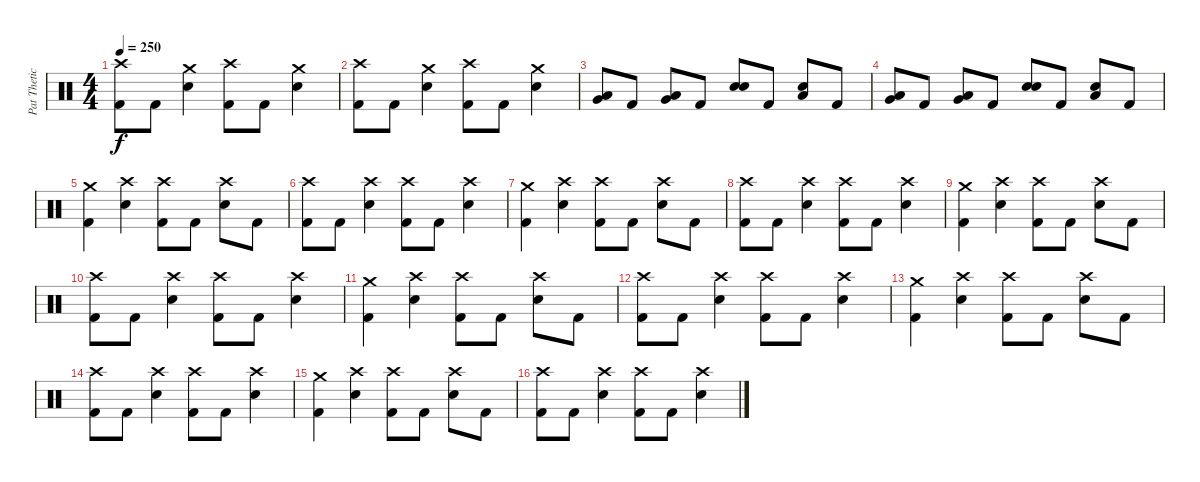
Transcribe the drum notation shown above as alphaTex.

\track ("Pat Thetic" "Pat Thetic") {instrument percussion}
\staff {score}
\articulation defaults
\ts (4 4)
\tempo 250
\clef neutral
\ks c
("Crash high (hit)" "Kick (hit) 2").8{dy f} "Kick (hit) 2".8 ("Crash medium (hit)" "Snare (hit) 2").4 ("Crash high (hit)" "Kick (hit) 2").8 "Kick (hit) 2".8 ("Crash medium (hit)" "Snare (hit) 2").4 |
("Crash high (hit)" "Kick (hit) 2").8 "Kick (hit) 2".8 ("Crash medium (hit)" "Snare (hit) 2").4 ("Crash high (hit)" "Kick (hit) 2").8 "Kick (hit) 2".8 ("Crash medium (hit)" "Snare (hit) 2").4 |
("Low Tom (hit)" "Very Low Tom (hit)").8 "Kick (hit) 2".8 ("Low Tom (hit)" "Very Low Tom (hit)").8 "Kick (hit) 2".8 ("Snare (hit) 2" "Snare (hit) 2").8 "Kick (hit) 2".8 ("Low Tom (hit)" "Snare (hit) 2").8 "Kick (hit) 2".8 |
("Low Tom (hit)" "Very Low Tom (hit)").8 "Kick (hit) 2".8 ("Low Tom (hit)" "Very Low Tom (hit)").8 "Kick (hit) 2".8 ("Snare (hit) 2" "Snare (hit) 2").8 "Kick (hit) 2".8 ("Low Tom (hit)" "Snare (hit) 2").8 "Kick (hit) 2".8 |
("Crash medium (hit)" "Kick (hit) 2").4 ("Crash high (hit)" "Snare (hit) 2").4 ("Crash high (hit)" "Kick (hit) 2").8 "Kick (hit) 2".8 ("Crash high (hit)" "Snare (hit) 2").8 "Kick (hit) 2".8 |
("Crash high (hit)" "Kick (hit) 2").8 "Kick (hit) 2".8 ("Crash high (hit)" "Snare (hit) 2").4 ("Crash high (hit)" "Kick (hit) 2").8 "Kick (hit) 2".8 ("Crash high (hit)" "Snare (hit) 2").4 |
("Crash medium (hit)" "Kick (hit) 2").4 ("Crash high (hit)" "Snare (hit) 2").4 ("Crash high (hit)" "Kick (hit) 2").8 "Kick (hit) 2".8 ("Crash high (hit)" "Snare (hit) 2").8 "Kick (hit) 2".8 |
("Crash high (hit)" "Kick (hit) 2").8 "Kick (hit) 2".8 ("Crash high (hit)" "Snare (hit) 2").4 ("Crash high (hit)" "Kick (hit) 2").8 "Kick (hit) 2".8 ("Crash high (hit)" "Snare (hit) 2").4 |
("Crash medium (hit)" "Kick (hit) 2").4 ("Crash high (hit)" "Snare (hit) 2").4 ("Crash high (hit)" "Kick (hit) 2").8 "Kick (hit) 2".8 ("Crash high (hit)" "Snare (hit) 2").8 "Kick (hit) 2".8 |
("Crash high (hit)" "Kick (hit) 2").8 "Kick (hit) 2".8 ("Crash high (hit)" "Snare (hit) 2").4 ("Crash high (hit)" "Kick (hit) 2").8 "Kick (hit) 2".8 ("Crash high (hit)" "Snare (hit) 2").4 |
("Crash medium (hit)" "Kick (hit) 2").4 ("Crash high (hit)" "Snare (hit) 2").4 ("Crash high (hit)" "Kick (hit) 2").8 "Kick (hit) 2".8 ("Crash high (hit)" "Snare (hit) 2").8 "Kick (hit) 2".8 |
("Crash high (hit)" "Kick (hit) 2").8 "Kick (hit) 2".8 ("Crash high (hit)" "Snare (hit) 2").4 ("Crash high (hit)" "Kick (hit) 2").8 "Kick (hit) 2".8 ("Crash high (hit)" "Snare (hit) 2").4 |
("Crash medium (hit)" "Kick (hit) 2").4 ("Crash high (hit)" "Snare (hit) 2").4 ("Crash high (hit)" "Kick (hit) 2").8 "Kick (hit) 2".8 ("Crash high (hit)" "Snare (hit) 2").8 "Kick (hit) 2".8 |
("Crash high (hit)" "Kick (hit) 2").8 "Kick (hit) 2".8 ("Crash high (hit)" "Snare (hit) 2").4 ("Crash high (hit)" "Kick (hit) 2").8 "Kick (hit) 2".8 ("Crash high (hit)" "Snare (hit) 2").4 |
("Crash medium (hit)" "Kick (hit) 2").4 ("Crash high (hit)" "Snare (hit) 2").4 ("Crash high (hit)" "Kick (hit) 2").8 "Kick (hit) 2".8 ("Crash high (hit)" "Snare (hit) 2").8 "Kick (hit) 2".8 |
("Crash high (hit)" "Kick (hit) 2").8 "Kick (hit) 2".8 ("Crash high (hit)" "Snare (hit) 2").4 ("Crash high (hit)" "Kick (hit) 2").8 "Kick (hit) 2".8 ("Crash high (hit)" "Snare (hit) 2").4
